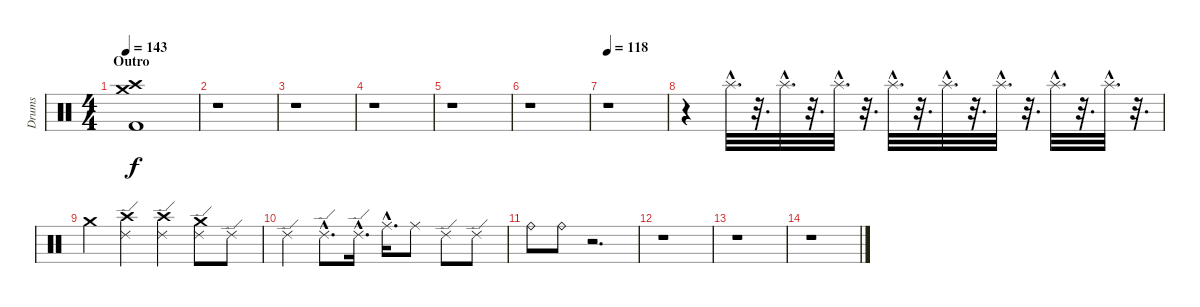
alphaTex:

\track ("Drums" "Drums") {instrument percussion}
\staff {score}
\articulation defaults
\ts (4 4)
\section ("" "Outro")
\tempo 143
\clef neutral
\ks c
("Crash medium (hit)" "Crash high (hit)" "Kick (hit) 2").1{dy f} |
r.1 |
r.1 |
r.1 |
r.1 |
r.1 |
\tempo 118
r.1{volume 1} |
r.4{volume 11 balance 13} "Splash (hit)"{hac}.32{d} r.32{d} "Splash (hit)"{hac}.32{d} r.32{d} "Splash (hit)"{hac}.32{d} r.32{d} "Splash (hit)"{hac}.32{d} r.32{d} "Splash (hit)"{hac}.32{d} r.32{d} "Splash (hit)"{hac}.32{d} r.32{d} "Splash (hit)"{hac}.32{d} r.32{d} "Splash (hit)"{hac}.32{d} r.32{d} |
"Crash medium (hit)".4{volume 2 balance 6} ("Crash high (hit)" "Ride (edge) 2").4 ("Crash high (hit)" "Ride (edge) 2").4 ("Crash medium (hit)" "Ride (edge) 2").8 "Ride (edge) 2".8 |
"Ride (edge) 2".4 "Ride (edge) 2"{hac}.8{d} "Ride (edge) 2"{hac}.16{d} "Ride (middle)"{hac}.16{d} "Ride (middle)".8 "Ride (edge) 2".8 "Ride (edge) 2".8 |
"Ride (bell)".8 "Ride (bell)".8 r.2{d} |
r.1 |
r.1 |
r.1
